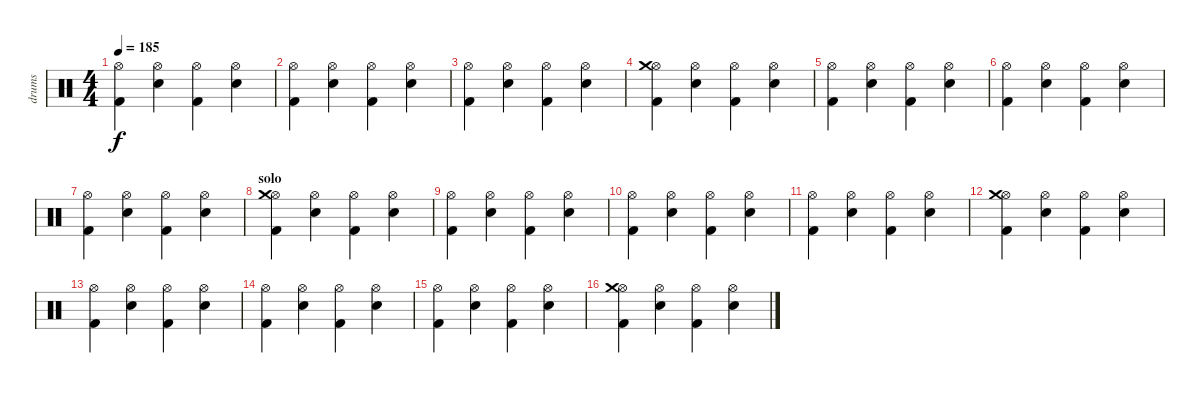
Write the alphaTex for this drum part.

\track ("drums" "drums") {instrument percussion}
\staff {score}
\articulation defaults
\ts (4 4)
\tempo 185
\clef neutral
\ks c
("Kick (hit) 2" "Hi-Hat (open)").4{dy f} ("Electric Snare (hit)" "Hi-Hat (open)").4 ("Kick (hit) 2" "Hi-Hat (open)").4 ("Electric Snare (hit)" "Hi-Hat (open)").4 |
("Kick (hit) 2" "Hi-Hat (open)").4 ("Electric Snare (hit)" "Hi-Hat (open)").4 ("Kick (hit) 2" "Hi-Hat (open)").4 ("Electric Snare (hit)" "Hi-Hat (open)").4 |
("Kick (hit) 2" "Hi-Hat (open)").4 ("Electric Snare (hit)" "Hi-Hat (open)").4 ("Kick (hit) 2" "Hi-Hat (open)").4 ("Electric Snare (hit)" "Hi-Hat (open)").4 |
("Kick (hit) 2" "Hi-Hat (open)" "Crash medium (hit)").4 ("Electric Snare (hit)" "Hi-Hat (open)").4 ("Kick (hit) 2" "Hi-Hat (open)").4 ("Electric Snare (hit)" "Hi-Hat (open)").4 |
("Kick (hit) 2" "Hi-Hat (open)").4 ("Electric Snare (hit)" "Hi-Hat (open)").4 ("Kick (hit) 2" "Hi-Hat (open)").4 ("Electric Snare (hit)" "Hi-Hat (open)").4 |
("Kick (hit) 2" "Hi-Hat (open)").4 ("Electric Snare (hit)" "Hi-Hat (open)").4 ("Kick (hit) 2" "Hi-Hat (open)").4 ("Electric Snare (hit)" "Hi-Hat (open)").4 |
("Kick (hit) 2" "Hi-Hat (open)").4 ("Electric Snare (hit)" "Hi-Hat (open)").4 ("Kick (hit) 2" "Hi-Hat (open)").4 ("Electric Snare (hit)" "Hi-Hat (open)").4 |
\section ("" "solo")
("Kick (hit) 2" "Hi-Hat (open)" "Crash medium (hit)").4 ("Electric Snare (hit)" "Hi-Hat (open)").4 ("Kick (hit) 2" "Hi-Hat (open)").4 ("Electric Snare (hit)" "Hi-Hat (open)").4 |
("Kick (hit) 2" "Hi-Hat (open)").4 ("Electric Snare (hit)" "Hi-Hat (open)").4 ("Kick (hit) 2" "Hi-Hat (open)").4 ("Electric Snare (hit)" "Hi-Hat (open)").4 |
("Kick (hit) 2" "Hi-Hat (open)").4 ("Electric Snare (hit)" "Hi-Hat (open)").4 ("Kick (hit) 2" "Hi-Hat (open)").4 ("Electric Snare (hit)" "Hi-Hat (open)").4 |
("Kick (hit) 2" "Hi-Hat (open)").4 ("Electric Snare (hit)" "Hi-Hat (open)").4 ("Kick (hit) 2" "Hi-Hat (open)").4 ("Electric Snare (hit)" "Hi-Hat (open)").4 |
("Kick (hit) 2" "Hi-Hat (open)" "Crash medium (hit)").4 ("Electric Snare (hit)" "Hi-Hat (open)").4 ("Kick (hit) 2" "Hi-Hat (open)").4 ("Electric Snare (hit)" "Hi-Hat (open)").4 |
("Kick (hit) 2" "Hi-Hat (open)").4 ("Electric Snare (hit)" "Hi-Hat (open)").4 ("Kick (hit) 2" "Hi-Hat (open)").4 ("Electric Snare (hit)" "Hi-Hat (open)").4 |
("Kick (hit) 2" "Hi-Hat (open)").4 ("Electric Snare (hit)" "Hi-Hat (open)").4 ("Kick (hit) 2" "Hi-Hat (open)").4 ("Electric Snare (hit)" "Hi-Hat (open)").4 |
("Kick (hit) 2" "Hi-Hat (open)").4 ("Electric Snare (hit)" "Hi-Hat (open)").4 ("Kick (hit) 2" "Hi-Hat (open)").4 ("Electric Snare (hit)" "Hi-Hat (open)").4 |
("Kick (hit) 2" "Hi-Hat (open)" "Crash medium (hit)").4 ("Electric Snare (hit)" "Hi-Hat (open)").4 ("Kick (hit) 2" "Hi-Hat (open)").4 ("Electric Snare (hit)" "Hi-Hat (open)").4
